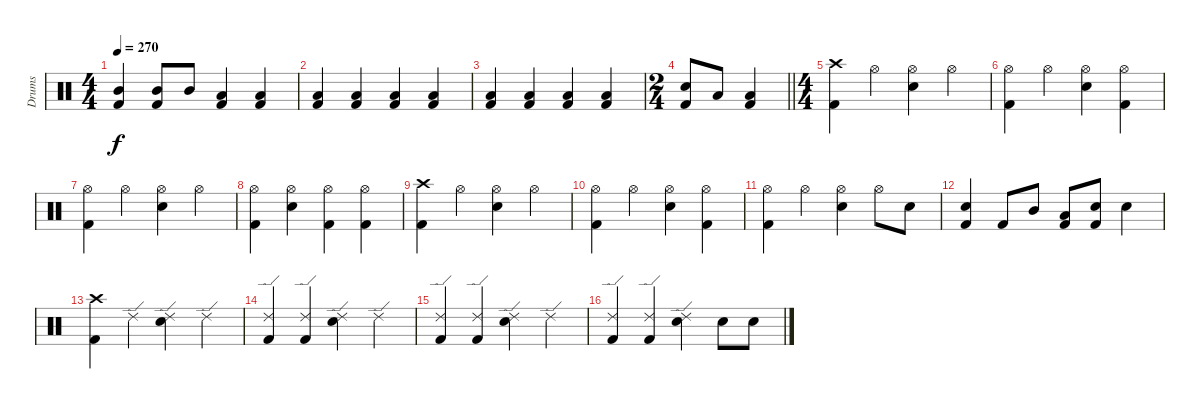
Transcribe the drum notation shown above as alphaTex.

\track ("Drums" "Drums") {instrument percussion}
\staff {score}
\articulation defaults
\ts (4 4)
\tempo 270
\clef neutral
\ks c
("Kick (hit) 2" "Mid Tom (hit)").4{dy f} ("Kick (hit) 2" "Mid Tom (hit)").8 "Mid Tom (hit)".8 ("Kick (hit) 2" "Low Tom (hit)").4 ("Kick (hit) 2" "Low Tom (hit)").4 |
("Kick (hit) 2" "Low Tom (hit)").4 ("Kick (hit) 2" "Low Tom (hit)").4 ("Kick (hit) 2" "Low Tom (hit)").4 ("Kick (hit) 2" "Low Tom (hit)").4 |
("Kick (hit) 2" "Low Tom (hit)").4 ("Kick (hit) 2" "Low Tom (hit)").4 ("Kick (hit) 2" "Low Tom (hit)").4 ("Kick (hit) 2" "Low Tom (hit)").4 |
\ts (2 4)
\barLineRight lightlight
("Snare (hit) 2" "Kick (hit) 2").8 "Low Tom (hit)".8 ("Kick (hit) 2" "Low Tom (hit)").4 |
\ts (4 4)
("Crash high (hit)" "Kick (hit) 2").4 "Hi-Hat (open)".4 ("Hi-Hat (open)" "Snare (hit) 2").4 "Hi-Hat (open)".4 |
("Hi-Hat (open)" "Kick (hit) 2").4 "Hi-Hat (open)".4 ("Hi-Hat (open)" "Snare (hit) 2").4 ("Hi-Hat (open)" "Kick (hit) 2").4 |
("Hi-Hat (open)" "Kick (hit) 2").4 "Hi-Hat (open)".4 ("Hi-Hat (open)" "Snare (hit) 2").4 "Hi-Hat (open)".4 |
("Hi-Hat (open)" "Kick (hit) 2").4 ("Hi-Hat (open)" "Snare (hit) 2").4 ("Hi-Hat (open)" "Kick (hit) 2").4 ("Hi-Hat (open)" "Kick (hit) 2").4 |
("Crash high (hit)" "Kick (hit) 2").4 "Hi-Hat (open)".4 ("Hi-Hat (open)" "Snare (hit) 2").4 "Hi-Hat (open)".4 |
("Hi-Hat (open)" "Kick (hit) 2").4 "Hi-Hat (open)".4 ("Hi-Hat (open)" "Snare (hit) 2").4 ("Hi-Hat (open)" "Kick (hit) 2").4 |
("Hi-Hat (open)" "Kick (hit) 2").4 "Hi-Hat (open)".4 ("Hi-Hat (open)" "Snare (hit) 2").4 "Hi-Hat (open)".8 "Snare (hit) 2".8 |
("Snare (hit) 2" "Kick (hit) 2").4 "Kick (hit) 2".8 "Mid Tom (hit)".8 ("Kick (hit) 2" "Low Tom (hit)").8 ("Snare (hit) 2" "Kick (hit) 2").8 "Snare (hit) 2".4 |
("Crash high (hit)" "Kick (hit) 2").4 "Ride (edge) 2".4 ("Ride (edge) 2" "Snare (hit) 2").4 "Ride (edge) 2".4 |
("Ride (edge) 2" "Kick (hit) 2").4 ("Ride (edge) 2" "Kick (hit) 2").4 ("Ride (edge) 2" "Snare (hit) 2").4 "Ride (edge) 2".4 |
("Ride (edge) 2" "Kick (hit) 2").4 ("Ride (edge) 2" "Kick (hit) 2").4 ("Ride (edge) 2" "Snare (hit) 2").4 "Ride (edge) 2".4 |
("Ride (edge) 2" "Kick (hit) 2").4 ("Ride (edge) 2" "Kick (hit) 2").4 ("Ride (edge) 2" "Snare (hit) 2").4 "Snare (hit) 2".8 "Snare (hit) 2".8
